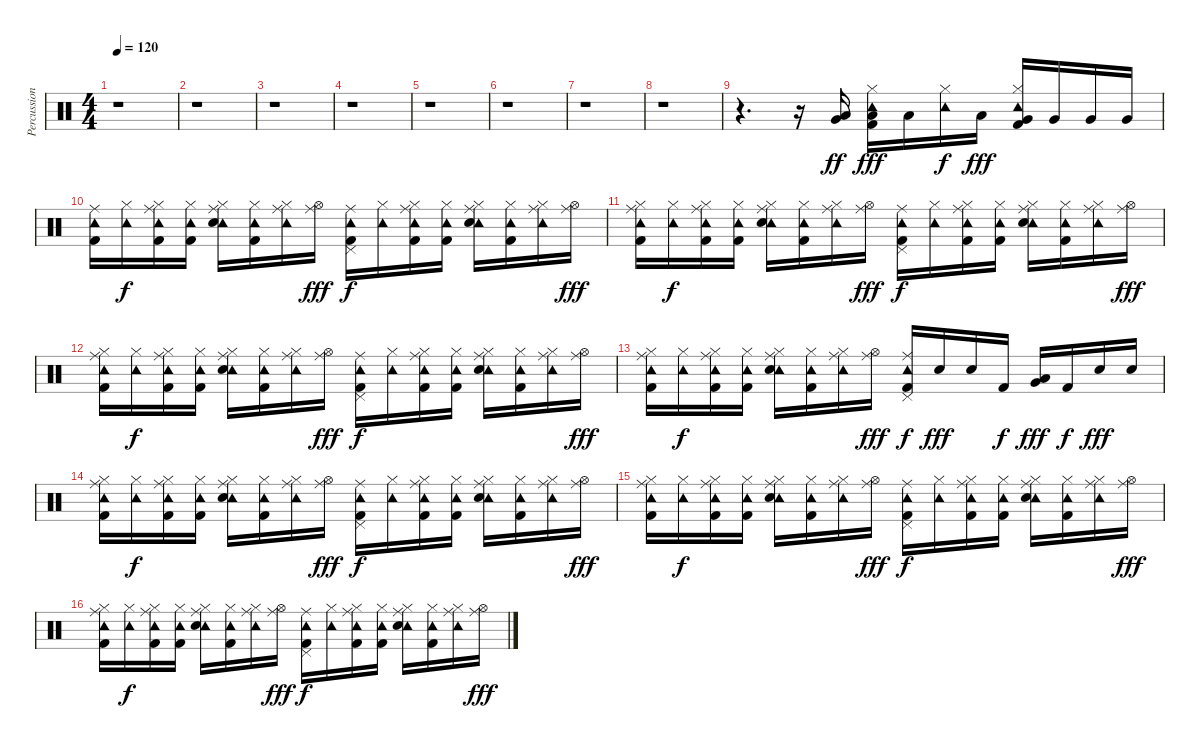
\track ("Percussion" "Percussion") {instrument percussion}
\staff {score}
\articulation defaults
\ts (4 4)
\tempo 120
\clef neutral
\ks c
r.1{dy ff} |
r.1 |
r.1 |
r.1 |
r.1 |
r.1 |
r.1 |
r.1 |
r.4{d} r.16 ("Low Tom (hit)" "Very Low Tom (hit)").16 ("Tambourine (hit)" "Hi-Hat (closed)" "Low Tom (hit)" "Kick (hit) 2").16{dy fff} "Low Tom (hit)".16 ("Tambourine (hit)" "Hi-Hat (closed)").16{dy f} "Low Tom (hit)".16{dy fff} ("Tambourine (hit)" "Hi-Hat (closed)" "Very Low Tom (hit)" "Kick (hit) 2").16 "Very Low Tom (hit)".16 "Very Low Tom (hit)".16 "Very Low Tom (hit)".16 |
("Tambourine (hit)" "Ride (middle)" "Kick (hit) 2").16 ("Tambourine (hit)" "Hi-Hat (closed)").16{dy f} ("Tambourine (hit)" "Ride (middle)" "Hi-Hat (closed)" "Kick (hit) 2").16 ("Tambourine (hit)" "Hi-Hat (closed)" "Kick (hit) 2").16 ("Tambourine (hit)" "Ride (middle)" "Hi-Hat (closed)" "Electric Snare (hit)").16 ("Tambourine (hit)" "Hi-Hat (closed)" "Kick (hit) 2").16 ("Tambourine (hit)" "Ride (middle)" "Hi-Hat (closed)").16 ("Ride (middle)" "Hi-Hat (open)").16{dy fff} ("Tambourine (hit)" "Ride (middle)" "Pedal Hi-Hat (hit)" "Kick (hit) 2").16{dy f} ("Tambourine (hit)" "Hi-Hat (closed)").16 ("Tambourine (hit)" "Ride (middle)" "Hi-Hat (closed)" "Kick (hit) 2").16 ("Tambourine (hit)" "Hi-Hat (closed)" "Kick (hit) 2").16 ("Tambourine (hit)" "Ride (middle)" "Hi-Hat (closed)" "Electric Snare (hit)").16 ("Tambourine (hit)" "Hi-Hat (closed)" "Kick (hit) 2").16 ("Tambourine (hit)" "Ride (middle)" "Hi-Hat (closed)").16 ("Ride (middle)" "Hi-Hat (open)").16{dy fff} |
("Tambourine (hit)" "Ride (middle)" "Hi-Hat (closed)" "Kick (hit) 2").16 ("Tambourine (hit)" "Hi-Hat (closed)").16{dy f} ("Tambourine (hit)" "Ride (middle)" "Hi-Hat (closed)" "Kick (hit) 2").16 ("Tambourine (hit)" "Hi-Hat (closed)" "Kick (hit) 2").16 ("Tambourine (hit)" "Ride (middle)" "Hi-Hat (closed)" "Electric Snare (hit)").16 ("Tambourine (hit)" "Hi-Hat (closed)" "Kick (hit) 2").16 ("Tambourine (hit)" "Ride (middle)" "Hi-Hat (closed)").16 ("Ride (middle)" "Hi-Hat (open)").16{dy fff} ("Tambourine (hit)" "Ride (middle)" "Pedal Hi-Hat (hit)" "Kick (hit) 2").16{dy f} ("Tambourine (hit)" "Hi-Hat (closed)").16 ("Tambourine (hit)" "Ride (middle)" "Hi-Hat (closed)" "Kick (hit) 2").16 ("Tambourine (hit)" "Hi-Hat (closed)" "Kick (hit) 2").16 ("Tambourine (hit)" "Ride (middle)" "Hi-Hat (closed)" "Electric Snare (hit)").16 ("Tambourine (hit)" "Hi-Hat (closed)" "Kick (hit) 2").16 ("Tambourine (hit)" "Ride (middle)" "Hi-Hat (closed)").16 ("Ride (middle)" "Hi-Hat (open)").16{dy fff} |
("Tambourine (hit)" "Ride (middle)" "Hi-Hat (closed)" "Kick (hit) 2").16 ("Tambourine (hit)" "Hi-Hat (closed)").16{dy f} ("Tambourine (hit)" "Ride (middle)" "Hi-Hat (closed)" "Kick (hit) 2").16 ("Tambourine (hit)" "Hi-Hat (closed)" "Kick (hit) 2").16 ("Tambourine (hit)" "Ride (middle)" "Hi-Hat (closed)" "Electric Snare (hit)").16 ("Tambourine (hit)" "Hi-Hat (closed)" "Kick (hit) 2").16 ("Tambourine (hit)" "Ride (middle)" "Hi-Hat (closed)").16 ("Ride (middle)" "Hi-Hat (open)").16{dy fff} ("Tambourine (hit)" "Ride (middle)" "Pedal Hi-Hat (hit)" "Kick (hit) 2").16{dy f} ("Tambourine (hit)" "Hi-Hat (closed)").16 ("Tambourine (hit)" "Ride (middle)" "Hi-Hat (closed)" "Kick (hit) 2").16 ("Tambourine (hit)" "Hi-Hat (closed)" "Kick (hit) 2").16 ("Tambourine (hit)" "Ride (middle)" "Hi-Hat (closed)" "Electric Snare (hit)").16 ("Tambourine (hit)" "Hi-Hat (closed)" "Kick (hit) 2").16 ("Tambourine (hit)" "Ride (middle)" "Hi-Hat (closed)").16 ("Ride (middle)" "Hi-Hat (open)").16{dy fff} |
("Tambourine (hit)" "Ride (middle)" "Hi-Hat (closed)" "Kick (hit) 2").16 ("Tambourine (hit)" "Hi-Hat (closed)").16{dy f} ("Tambourine (hit)" "Ride (middle)" "Hi-Hat (closed)" "Kick (hit) 2").16 ("Tambourine (hit)" "Hi-Hat (closed)" "Kick (hit) 2").16 ("Tambourine (hit)" "Ride (middle)" "Hi-Hat (closed)" "Electric Snare (hit)").16 ("Tambourine (hit)" "Hi-Hat (closed)" "Kick (hit) 2").16 ("Tambourine (hit)" "Ride (middle)" "Hi-Hat (closed)").16 ("Ride (middle)" "Hi-Hat (open)").16{dy fff} ("Tambourine (hit)" "Ride (middle)" "Pedal Hi-Hat (hit)" "Kick (hit) 2").16{dy f} "Electric Snare (hit)".16{dy fff} "Electric Snare (hit)".16 "Kick (hit) 2".16{dy f} ("Low Tom (hit)" "Very Low Tom (hit)").16{dy fff} "Kick (hit) 2".16{dy f} "Electric Snare (hit)".16{dy fff} "Electric Snare (hit)".16 |
("Tambourine (hit)" "Ride (middle)" "Hi-Hat (closed)" "Kick (hit) 2").16 ("Tambourine (hit)" "Hi-Hat (closed)").16{dy f} ("Tambourine (hit)" "Ride (middle)" "Hi-Hat (closed)" "Kick (hit) 2").16 ("Tambourine (hit)" "Hi-Hat (closed)" "Kick (hit) 2").16 ("Tambourine (hit)" "Ride (middle)" "Hi-Hat (closed)" "Electric Snare (hit)").16 ("Tambourine (hit)" "Hi-Hat (closed)" "Kick (hit) 2").16 ("Tambourine (hit)" "Ride (middle)" "Hi-Hat (closed)").16 ("Ride (middle)" "Hi-Hat (open)").16{dy fff} ("Tambourine (hit)" "Ride (middle)" "Pedal Hi-Hat (hit)" "Kick (hit) 2").16{dy f} ("Tambourine (hit)" "Hi-Hat (closed)").16 ("Tambourine (hit)" "Ride (middle)" "Hi-Hat (closed)" "Kick (hit) 2").16 ("Tambourine (hit)" "Hi-Hat (closed)" "Kick (hit) 2").16 ("Tambourine (hit)" "Ride (middle)" "Hi-Hat (closed)" "Electric Snare (hit)").16 ("Tambourine (hit)" "Hi-Hat (closed)" "Kick (hit) 2").16 ("Tambourine (hit)" "Ride (middle)" "Hi-Hat (closed)").16 ("Ride (middle)" "Hi-Hat (open)").16{dy fff} |
("Tambourine (hit)" "Ride (middle)" "Hi-Hat (closed)" "Kick (hit) 2").16 ("Tambourine (hit)" "Hi-Hat (closed)").16{dy f} ("Tambourine (hit)" "Ride (middle)" "Hi-Hat (closed)" "Kick (hit) 2").16 ("Tambourine (hit)" "Hi-Hat (closed)" "Kick (hit) 2").16 ("Tambourine (hit)" "Ride (middle)" "Hi-Hat (closed)" "Electric Snare (hit)").16 ("Tambourine (hit)" "Hi-Hat (closed)" "Kick (hit) 2").16 ("Tambourine (hit)" "Ride (middle)" "Hi-Hat (closed)").16 ("Ride (middle)" "Hi-Hat (open)").16{dy fff} ("Tambourine (hit)" "Ride (middle)" "Pedal Hi-Hat (hit)" "Kick (hit) 2").16{dy f} ("Tambourine (hit)" "Hi-Hat (closed)").16 ("Tambourine (hit)" "Ride (middle)" "Hi-Hat (closed)" "Kick (hit) 2").16 ("Tambourine (hit)" "Hi-Hat (closed)" "Kick (hit) 2").16 ("Tambourine (hit)" "Ride (middle)" "Hi-Hat (closed)" "Electric Snare (hit)").16 ("Tambourine (hit)" "Hi-Hat (closed)" "Kick (hit) 2").16 ("Tambourine (hit)" "Ride (middle)" "Hi-Hat (closed)").16 ("Ride (middle)" "Hi-Hat (open)").16{dy fff} |
("Tambourine (hit)" "Ride (middle)" "Hi-Hat (closed)" "Kick (hit) 2").16 ("Tambourine (hit)" "Hi-Hat (closed)").16{dy f} ("Tambourine (hit)" "Ride (middle)" "Hi-Hat (closed)" "Kick (hit) 2").16 ("Tambourine (hit)" "Hi-Hat (closed)" "Kick (hit) 2").16 ("Tambourine (hit)" "Ride (middle)" "Hi-Hat (closed)" "Electric Snare (hit)").16 ("Tambourine (hit)" "Hi-Hat (closed)" "Kick (hit) 2").16 ("Tambourine (hit)" "Ride (middle)" "Hi-Hat (closed)").16 ("Ride (middle)" "Hi-Hat (open)").16{dy fff} ("Tambourine (hit)" "Ride (middle)" "Pedal Hi-Hat (hit)" "Kick (hit) 2").16{dy f} ("Tambourine (hit)" "Hi-Hat (closed)").16 ("Tambourine (hit)" "Ride (middle)" "Hi-Hat (closed)" "Kick (hit) 2").16 ("Tambourine (hit)" "Hi-Hat (closed)" "Kick (hit) 2").16 ("Tambourine (hit)" "Ride (middle)" "Hi-Hat (closed)" "Electric Snare (hit)").16 ("Tambourine (hit)" "Hi-Hat (closed)" "Kick (hit) 2").16 ("Tambourine (hit)" "Ride (middle)" "Hi-Hat (closed)").16 ("Ride (middle)" "Hi-Hat (open)").16{dy fff}
